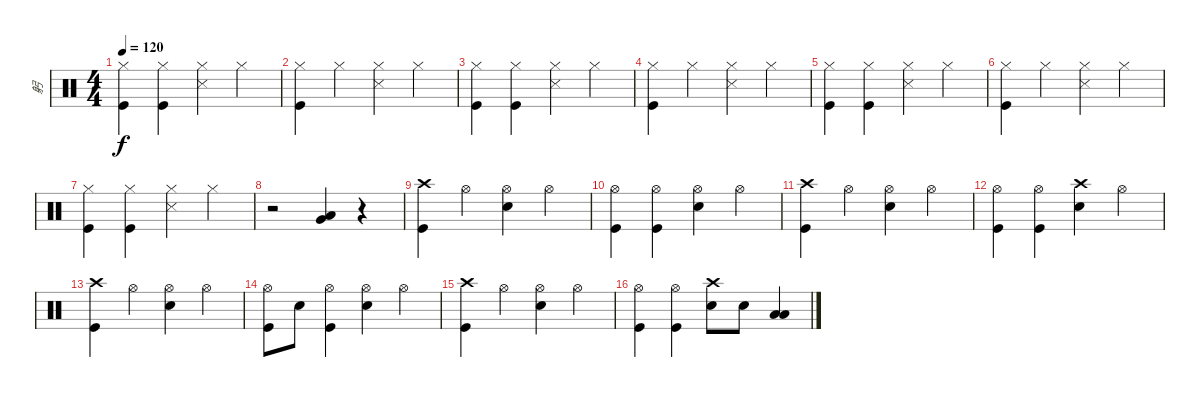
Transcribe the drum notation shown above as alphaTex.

\track ("躬" "躬") {instrument percussion}
\staff {score}
\articulation defaults
\ts (4 4)
\tempo 120
\clef neutral
\ks c
("Hi-Hat (closed)" "Kick (hit)").4{dy f} ("Hi-Hat (closed)" "Kick (hit)").4 ("Hi-Hat (closed)" "Snare (side stick) 3").4 "Hi-Hat (closed)".4 |
("Hi-Hat (closed)" "Kick (hit)").4 "Hi-Hat (closed)".4 ("Hi-Hat (closed)" "Snare (side stick) 3").4 "Hi-Hat (closed)".4 |
("Hi-Hat (closed)" "Kick (hit)").4 ("Hi-Hat (closed)" "Kick (hit)").4 ("Hi-Hat (closed)" "Snare (side stick) 3").4 "Hi-Hat (closed)".4 |
("Hi-Hat (closed)" "Kick (hit)").4 "Hi-Hat (closed)".4 ("Hi-Hat (closed)" "Snare (side stick) 3").4 "Hi-Hat (closed)".4 |
("Hi-Hat (closed)" "Kick (hit)").4 ("Hi-Hat (closed)" "Kick (hit)").4 ("Hi-Hat (closed)" "Snare (side stick) 3").4 "Hi-Hat (closed)".4 |
("Hi-Hat (closed)" "Kick (hit)").4 "Hi-Hat (closed)".4 ("Hi-Hat (closed)" "Snare (side stick) 3").4 "Hi-Hat (closed)".4 |
("Hi-Hat (closed)" "Kick (hit)").4 ("Hi-Hat (closed)" "Kick (hit)").4 ("Hi-Hat (closed)" "Snare (side stick) 3").4 "Hi-Hat (closed)".4 |
r.2 ("Low Tom (hit)" "Very Low Tom (hit)").4 r.4 |
("Crash high (hit)" "Kick (hit)").4 "Hi-Hat (open)".4 ("Hi-Hat (open)" "Snare (hit) 2").4 "Hi-Hat (open)".4 |
("Hi-Hat (open)" "Kick (hit)").4 ("Hi-Hat (open)" "Kick (hit)").4 ("Hi-Hat (open)" "Snare (hit) 2").4 "Hi-Hat (open)".4 |
("Crash high (hit)" "Kick (hit)").4 "Hi-Hat (open)".4 ("Hi-Hat (open)" "Snare (hit) 2").4 "Hi-Hat (open)".4 |
("Hi-Hat (open)" "Kick (hit)").4 ("Hi-Hat (open)" "Kick (hit)").4 ("Crash high (hit)" "Snare (hit) 2").4 "Hi-Hat (open)".4 |
("Crash high (hit)" "Kick (hit)").4 "Hi-Hat (open)".4 ("Hi-Hat (open)" "Snare (hit) 2").4 "Hi-Hat (open)".4 |
("Hi-Hat (open)" "Kick (hit)").8 "Snare (hit) 2".8 ("Hi-Hat (open)" "Kick (hit)").4 ("Hi-Hat (open)" "Snare (hit) 2").4 "Hi-Hat (open)".4 |
("Crash high (hit)" "Kick (hit)").4 "Hi-Hat (open)".4 ("Hi-Hat (open)" "Snare (hit) 2").4 "Hi-Hat (open)".4 |
("Hi-Hat (open)" "Kick (hit)").4 ("Hi-Hat (open)" "Kick (hit)").4 ("Crash high (hit)" "Snare (hit) 2").8 "Snare (hit) 2".8 ("Low Tom (hit)" "Low Tom (hit)").4
